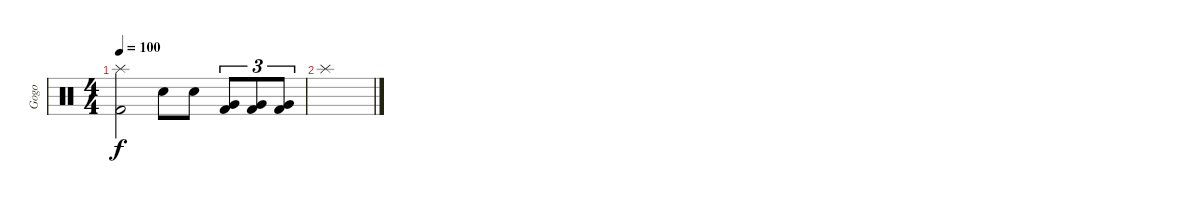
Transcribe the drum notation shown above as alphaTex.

\track ("Gogo" "Gogo") {instrument percussion}
\staff {score}
\articulation defaults
\ts (4 4)
\tempo 100
\clef neutral
\ks c
("Splash (hit)" "Kick (hit) 2").2{dy f} "Snare (hit) 2".8 "Snare (hit) 2".8 ("Very Low Tom (hit)" "Kick (hit) 2").8{tu (3 2)} ("Very Low Tom (hit)" "Kick (hit) 2").8{tu (3 2)} ("Very Low Tom (hit)" "Kick (hit) 2").8{tu (3 2)} |
"Splash (hit)".1
